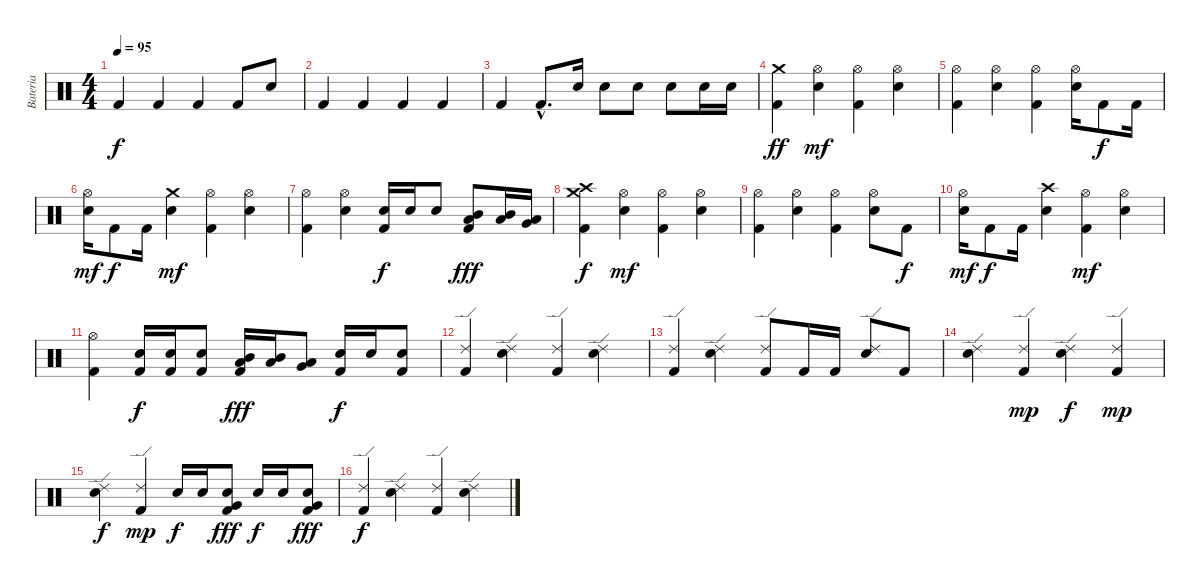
\track ("Bateria" "Bateria") {instrument percussion}
\staff {score}
\articulation defaults
\ts (4 4)
\tempo 95
\clef neutral
\ks c "Kick (hit) 2".4{dy f} "Kick (hit) 2".4 "Kick (hit) 2".4 "Kick (hit) 2".8 "Snare (hit) 2".8
|
"Kick (hit) 2".4 "Kick (hit) 2".4 "Kick (hit) 2".4 "Kick (hit) 2".4 |
"Kick (hit) 2".4 "Kick (hit) 2"{hac}.8{d} "Snare (hit) 2".16 "Snare (hit) 2".8 "Snare (hit) 2".8 "Snare (hit) 2".8 "Snare (hit) 2".16 "Snare (hit) 2".16 |
("Crash medium (hit)" "Kick (hit) 2").4{dy ff} ("Hi-Hat (open)" "Snare (hit) 2").4{dy mf} ("Hi-Hat (open)" "Kick (hit) 2").4 ("Hi-Hat (open)" "Snare (hit) 2").4 |
("Hi-Hat (open)" "Kick (hit) 2").4 ("Hi-Hat (open)" "Snare (hit) 2").4 ("Hi-Hat (open)" "Kick (hit) 2").4 ("Hi-Hat (open)" "Snare (hit) 2").16 "Kick (hit) 2".8{dy f} "Kick (hit) 2".16 |
("Hi-Hat (open)" "Snare (hit) 2").16{dy mf} "Kick (hit) 2".8{dy f} "Kick (hit) 2".16 ("Crash medium (hit)" "Snare (hit) 2").4{dy mf} ("Hi-Hat (open)" "Kick (hit) 2").4 ("Hi-Hat (open)" "Snare (hit) 2").4 |
("Hi-Hat (open)" "Kick (hit) 2").4 ("Hi-Hat (open)" "Snare (hit) 2").4 ("Snare (hit) 2" "Kick (hit) 2").16{dy f} "Snare (hit) 2".16 "Snare (hit) 2".8 ("Mid Tom (hit)" "Low Tom (hit)" "Kick (hit) 2").8{dy fff} ("Mid Tom (hit)" "Low Tom (hit)").16 ("Low Tom (hit)" "Very Low Tom (hit)").16 |
("Crash high (hit)" "Crash medium (hit)" "Kick (hit) 2").4{dy f} ("Hi-Hat (open)" "Snare (hit) 2").4{dy mf} ("Hi-Hat (open)" "Kick (hit) 2").4 ("Hi-Hat (open)" "Snare (hit) 2").4 |
("Hi-Hat (open)" "Kick (hit) 2").4 ("Hi-Hat (open)" "Snare (hit) 2").4 ("Hi-Hat (open)" "Kick (hit) 2").4 ("Hi-Hat (open)" "Snare (hit) 2").8 "Kick (hit) 2".8{dy f} |
("Hi-Hat (open)" "Snare (hit) 2").16{dy mf} "Kick (hit) 2".8{dy f} "Kick (hit) 2".16 ("Crash high (hit)" "Snare (hit) 2").4 ("Hi-Hat (open)" "Kick (hit) 2").4{dy mf} ("Hi-Hat (open)" "Snare (hit) 2").4 |
("Hi-Hat (open)" "Kick (hit) 2").4 ("Snare (hit) 2" "Kick (hit) 2").16{dy f} ("Snare (hit) 2" "Kick (hit) 2").16 ("Snare (hit) 2" "Kick (hit) 2").8 ("Mid Tom (hit)" "Low Tom (hit)" "Kick (hit) 2").16{dy fff} ("Mid Tom (hit)" "Low Tom (hit)").16 ("Low Tom (hit)" "Very Low Tom (hit)").8 ("Snare (hit) 2" "Kick (hit) 2").16{dy f} "Snare (hit) 2".16 ("Snare (hit) 2" "Kick (hit) 2").8 |
("Ride (edge) 2" "Kick (hit) 2").4 ("Ride (edge) 2" "Snare (hit) 2").4 ("Ride (edge) 2" "Kick (hit) 2").4 ("Ride (edge) 2" "Snare (hit) 2").4 |
("Ride (edge) 2" "Kick (hit) 2").4 ("Ride (edge) 2" "Snare (hit) 2").4 ("Ride (edge) 2" "Kick (hit) 2").8 "Kick (hit) 2".16 "Kick (hit) 2".16 ("Ride (edge) 2" "Snare (hit) 2").8 "Kick (hit) 2".8 |
("Ride (edge) 2" "Snare (hit) 2").4 ("Ride (edge) 2" "Kick (hit) 2").4{dy mp} ("Ride (edge) 2" "Snare (hit) 2").4{dy f} ("Ride (edge) 2" "Kick (hit) 2").4{dy mp} |
("Ride (edge) 2" "Snare (hit) 2").4{dy f} ("Ride (edge) 2" "Kick (hit) 2").4{dy mp} "Snare (hit) 2".16{dy f} "Snare (hit) 2".16 ("Snare (hit) 2" "Very Low Tom (hit)" "Kick (hit) 2").8{dy fff} "Snare (hit) 2".16{dy f} "Snare (hit) 2".16 ("Snare (hit) 2" "Very Low Tom (hit)" "Kick (hit) 2").8{dy fff} |
("Ride (edge) 2" "Kick (hit) 2").4{dy f} ("Ride (edge) 2" "Snare (hit) 2").4 ("Ride (edge) 2" "Kick (hit) 2").4 ("Ride (edge) 2" "Snare (hit) 2").4
